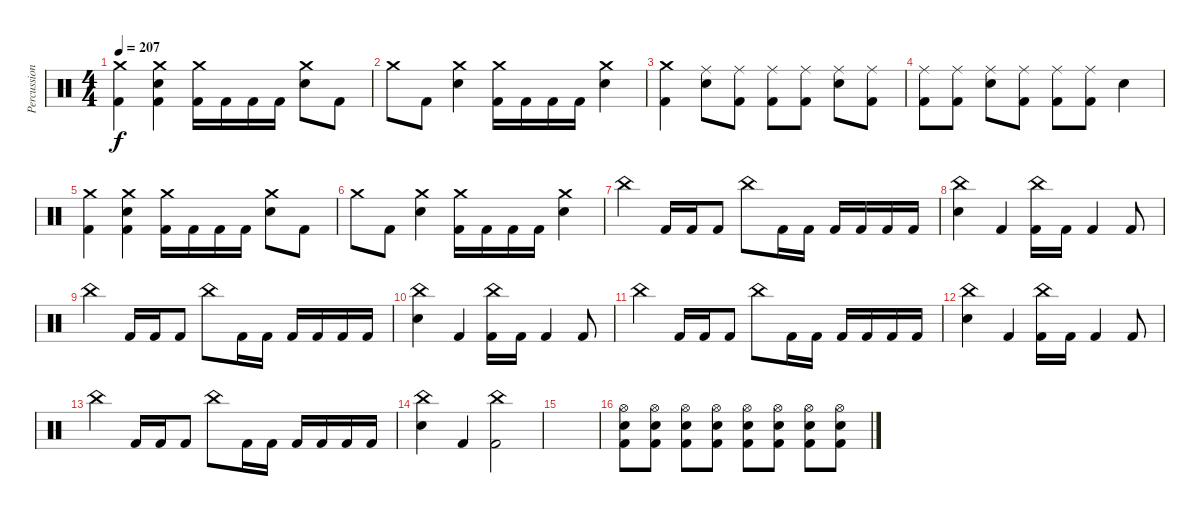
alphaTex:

\track ("Percussion" "Percussion") {instrument percussion}
\staff {score}
\articulation defaults
\ts (4 4)
\tempo 207
\clef neutral
\ks c
("Crash medium (hit)" "Kick (hit) 2").4{dy f} ("Crash medium (hit)" "Electric Snare (hit)" "Kick (hit) 2").4 ("Crash medium (hit)" "Kick (hit) 2").16 "Kick (hit) 2".16 "Kick (hit) 2".16 "Kick (hit) 2".16 ("Crash medium (hit)" "Electric Snare (hit)").8 "Kick (hit) 2".8 |
"Crash medium (hit)".8 "Kick (hit) 2".8 ("Crash medium (hit)" "Electric Snare (hit)").4 ("Crash medium (hit)" "Kick (hit) 2").16 "Kick (hit) 2".16 "Kick (hit) 2".16 "Kick (hit) 2".16 ("Crash medium (hit)" "Electric Snare (hit)").4 |
("Crash medium (hit)" "Kick (hit) 2").4 ("Ride (middle)" "Electric Snare (hit)").8 ("Ride (middle)" "Kick (hit) 2").8 ("Ride (middle)" "Kick (hit) 2").8 ("Ride (middle)" "Kick (hit) 2").8 ("Ride (middle)" "Electric Snare (hit)").8 ("Ride (middle)" "Kick (hit) 2").8 |
("Ride (middle)" "Kick (hit) 2").8 ("Ride (middle)" "Kick (hit) 2").8 ("Ride (middle)" "Electric Snare (hit)").8 ("Ride (middle)" "Kick (hit) 2").8 ("Ride (middle)" "Kick (hit) 2").8 ("Ride (middle)" "Kick (hit) 2").8 "Electric Snare (hit)".4 |
("Crash medium (hit)" "Kick (hit) 2").4 ("Crash medium (hit)" "Electric Snare (hit)" "Kick (hit) 2").4 ("Crash medium (hit)" "Kick (hit) 2").16 "Kick (hit) 2".16 "Kick (hit) 2".16 "Kick (hit) 2".16 ("Crash medium (hit)" "Electric Snare (hit)").8 "Kick (hit) 2".8 |
"Crash medium (hit)".8 "Kick (hit) 2".8 ("Crash medium (hit)" "Electric Snare (hit)").4 ("Crash medium (hit)" "Kick (hit) 2").16 "Kick (hit) 2".16 "Kick (hit) 2".16 "Kick (hit) 2".16 ("Crash medium (hit)" "Electric Snare (hit)").4 |
"China (hit)".4 "Kick (hit) 2".16 "Kick (hit) 2".16 "Kick (hit) 2".8 "China (hit)".8 "Kick (hit) 2".16 "Kick (hit) 2".16 "Kick (hit) 2".16 "Kick (hit) 2".16 "Kick (hit) 2".16 "Kick (hit) 2".16 |
("China (hit)" "Electric Snare (hit)").4 "Kick (hit) 2".4 ("China (hit)" "Kick (hit) 2").16 "Kick (hit) 2".16 "Kick (hit) 2".4 "Kick (hit) 2".8 |
"China (hit)".4 "Kick (hit) 2".16 "Kick (hit) 2".16 "Kick (hit) 2".8 "China (hit)".8 "Kick (hit) 2".16 "Kick (hit) 2".16 "Kick (hit) 2".16 "Kick (hit) 2".16 "Kick (hit) 2".16 "Kick (hit) 2".16 |
("China (hit)" "Electric Snare (hit)").4 "Kick (hit) 2".4 ("China (hit)" "Kick (hit) 2").16 "Kick (hit) 2".16 "Kick (hit) 2".4 "Kick (hit) 2".8 |
"China (hit)".4 "Kick (hit) 2".16 "Kick (hit) 2".16 "Kick (hit) 2".8 "China (hit)".8 "Kick (hit) 2".16 "Kick (hit) 2".16 "Kick (hit) 2".16 "Kick (hit) 2".16 "Kick (hit) 2".16 "Kick (hit) 2".16 |
("China (hit)" "Electric Snare (hit)").4 "Kick (hit) 2".4 ("China (hit)" "Kick (hit) 2").16 "Kick (hit) 2".16 "Kick (hit) 2".4 "Kick (hit) 2".8 |
"China (hit)".4 "Kick (hit) 2".16 "Kick (hit) 2".16 "Kick (hit) 2".8 "China (hit)".8 "Kick (hit) 2".16 "Kick (hit) 2".16 "Kick (hit) 2".16 "Kick (hit) 2".16 "Kick (hit) 2".16 "Kick (hit) 2".16 |
("China (hit)" "Electric Snare (hit)").4 "Kick (hit) 2".4 ("China (hit)" "Kick (hit) 2").2 |
|
("Hi-Hat (open)" "Electric Snare (hit)" "Kick (hit) 2").8 ("Hi-Hat (open)" "Electric Snare (hit)" "Kick (hit) 2").8 ("Hi-Hat (open)" "Electric Snare (hit)" "Kick (hit) 2").8 ("Hi-Hat (open)" "Electric Snare (hit)" "Kick (hit) 2").8 ("Hi-Hat (open)" "Electric Snare (hit)" "Kick (hit) 2").8 ("Hi-Hat (open)" "Electric Snare (hit)" "Kick (hit) 2").8 ("Hi-Hat (open)" "Electric Snare (hit)" "Kick (hit) 2").8 ("Hi-Hat (open)" "Electric Snare (hit)" "Kick (hit) 2").8
